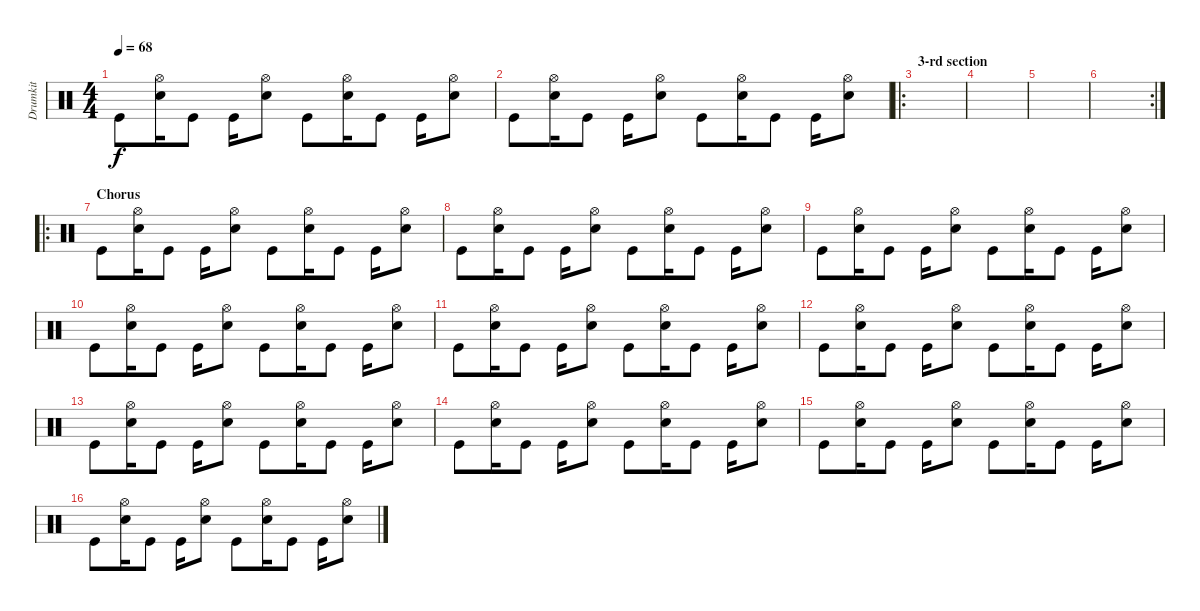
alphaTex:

\track ("Drumkit" "Drumkit") {instrument percussion}
\staff {score}
\articulation defaults
\ts (4 4)
\tempo 68
\clef neutral
\ks c "Kick (hit)".8{dy f}
("Snare (hit) 2" "Hi-Hat (open)").16 "Kick (hit)".8 "Kick (hit)".16 ("Hi-Hat (open)" "Snare (hit) 2").8 "Kick (hit)".8 ("Snare (hit) 2" "Hi-Hat (open)").16 "Kick (hit)".8 "Kick (hit)".16 ("Snare (hit) 2" "Hi-Hat (open)").8 |
"Kick (hit)".8 ("Snare (hit) 2" "Hi-Hat (open)").16 "Kick (hit)".8 "Kick (hit)".16 ("Hi-Hat (open)" "Snare (hit) 2").8 "Kick (hit)".8 ("Snare (hit) 2" "Hi-Hat (open)").16 "Kick (hit)".8 "Kick (hit)".16 ("Snare (hit) 2" "Hi-Hat (open)").8 |
\ro
\section ("" "3-rd section")
|
|
|
\rc 2
|
\ro
\section ("" "Chorus")
"Kick (hit)".8 ("Snare (hit) 2" "Hi-Hat (open)").16 "Kick (hit)".8 "Kick (hit)".16 ("Hi-Hat (open)" "Snare (hit) 2").8 "Kick (hit)".8 ("Snare (hit) 2" "Hi-Hat (open)").16 "Kick (hit)".8 "Kick (hit)".16 ("Snare (hit) 2" "Hi-Hat (open)").8 |
"Kick (hit)".8 ("Snare (hit) 2" "Hi-Hat (open)").16 "Kick (hit)".8 "Kick (hit)".16 ("Hi-Hat (open)" "Snare (hit) 2").8 "Kick (hit)".8 ("Snare (hit) 2" "Hi-Hat (open)").16 "Kick (hit)".8 "Kick (hit)".16 ("Snare (hit) 2" "Hi-Hat (open)").8 |
"Kick (hit)".8 ("Snare (hit) 2" "Hi-Hat (open)").16 "Kick (hit)".8 "Kick (hit)".16 ("Hi-Hat (open)" "Snare (hit) 2").8 "Kick (hit)".8 ("Snare (hit) 2" "Hi-Hat (open)").16 "Kick (hit)".8 "Kick (hit)".16 ("Snare (hit) 2" "Hi-Hat (open)").8 |
"Kick (hit)".8 ("Snare (hit) 2" "Hi-Hat (open)").16 "Kick (hit)".8 "Kick (hit)".16 ("Hi-Hat (open)" "Snare (hit) 2").8 "Kick (hit)".8 ("Snare (hit) 2" "Hi-Hat (open)").16 "Kick (hit)".8 "Kick (hit)".16 ("Snare (hit) 2" "Hi-Hat (open)").8 |
"Kick (hit)".8 ("Snare (hit) 2" "Hi-Hat (open)").16 "Kick (hit)".8 "Kick (hit)".16 ("Hi-Hat (open)" "Snare (hit) 2").8 "Kick (hit)".8 ("Snare (hit) 2" "Hi-Hat (open)").16 "Kick (hit)".8 "Kick (hit)".16 ("Snare (hit) 2" "Hi-Hat (open)").8 |
"Kick (hit)".8 ("Snare (hit) 2" "Hi-Hat (open)").16 "Kick (hit)".8 "Kick (hit)".16 ("Hi-Hat (open)" "Snare (hit) 2").8 "Kick (hit)".8 ("Snare (hit) 2" "Hi-Hat (open)").16 "Kick (hit)".8 "Kick (hit)".16 ("Snare (hit) 2" "Hi-Hat (open)").8 |
"Kick (hit)".8 ("Snare (hit) 2" "Hi-Hat (open)").16 "Kick (hit)".8 "Kick (hit)".16 ("Hi-Hat (open)" "Snare (hit) 2").8 "Kick (hit)".8 ("Snare (hit) 2" "Hi-Hat (open)").16 "Kick (hit)".8 "Kick (hit)".16 ("Snare (hit) 2" "Hi-Hat (open)").8 |
"Kick (hit)".8 ("Snare (hit) 2" "Hi-Hat (open)").16 "Kick (hit)".8 "Kick (hit)".16 ("Hi-Hat (open)" "Snare (hit) 2").8 "Kick (hit)".8 ("Snare (hit) 2" "Hi-Hat (open)").16 "Kick (hit)".8 "Kick (hit)".16 ("Snare (hit) 2" "Hi-Hat (open)").8 |
"Kick (hit)".8 ("Snare (hit) 2" "Hi-Hat (open)").16 "Kick (hit)".8 "Kick (hit)".16 ("Hi-Hat (open)" "Snare (hit) 2").8 "Kick (hit)".8 ("Snare (hit) 2" "Hi-Hat (open)").16 "Kick (hit)".8 "Kick (hit)".16 ("Snare (hit) 2" "Hi-Hat (open)").8 |
"Kick (hit)".8 ("Snare (hit) 2" "Hi-Hat (open)").16 "Kick (hit)".8 "Kick (hit)".16 ("Hi-Hat (open)" "Snare (hit) 2").8 "Kick (hit)".8 ("Snare (hit) 2" "Hi-Hat (open)").16 "Kick (hit)".8 "Kick (hit)".16 ("Snare (hit) 2" "Hi-Hat (open)").8
